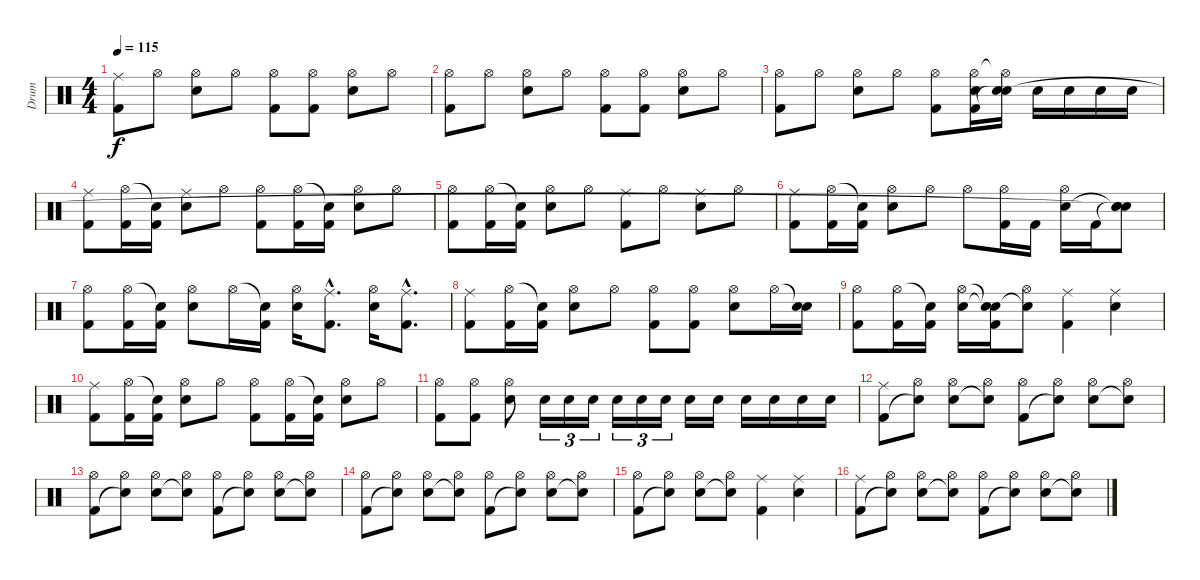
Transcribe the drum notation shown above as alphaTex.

\track ("Drum" "Drum") {instrument percussion}
\staff {score}
\articulation defaults
\ts (4 4)
\tempo 115
\clef neutral
\ks c
("Ride (middle)" "Kick (hit) 2").8{dy f} "Hi-Hat (open)".8 ("Hi-Hat (open)" "Electric Snare (hit)").8 "Hi-Hat (open)".8 ("Hi-Hat (open)" "Kick (hit) 2").8 ("Hi-Hat (open)" "Kick (hit) 2").8 ("Hi-Hat (open)" "Electric Snare (hit)").8 "Hi-Hat (open)".8 |
("Hi-Hat (open)" "Kick (hit) 2").8 "Hi-Hat (open)".8 ("Hi-Hat (open)" "Electric Snare (hit)").8 "Hi-Hat (open)".8 ("Hi-Hat (open)" "Kick (hit) 2").8 ("Hi-Hat (open)" "Kick (hit) 2").8 ("Hi-Hat (open)" "Electric Snare (hit)").8 "Hi-Hat (open)".8 |
("Hi-Hat (open)" "Kick (hit) 2").8 "Hi-Hat (open)".8 ("Hi-Hat (open)" "Electric Snare (hit)").8 "Hi-Hat (open)".8 ("Hi-Hat (open)" "Kick (hit) 2").8 ("Hi-Hat (open)" "Electric Snare (hit)" "Kick (hit) 2"{t}).16 ("Hi-Hat (open)"{t} "Electric Snare (hit)" "Snare (hit)"{t}).16 "Electric Snare (hit)".16 "Electric Snare (hit)".16 "Electric Snare (hit)".16 "Electric Snare (hit)".16 |
("Ride (middle)" "Kick (hit) 2").8 ("Hi-Hat (open)" "Kick (hit) 2").16 ("Snare (hit)"{t} "Kick (hit) 2").16 ("Ride (middle)" "Electric Snare (hit)").8 "Hi-Hat (open)".8 ("Hi-Hat (open)" "Kick (hit) 2").8 ("Hi-Hat (open)" "Kick (hit) 2").16 ("Snare (hit)"{t} "Kick (hit) 2").16 ("Hi-Hat (open)" "Electric Snare (hit)").8 "Hi-Hat (open)".8 |
("Hi-Hat (open)" "Kick (hit) 2").8 ("Hi-Hat (open)" "Kick (hit) 2").16 ("Snare (hit)"{t} "Kick (hit) 2").16 ("Hi-Hat (open)" "Electric Snare (hit)").8 "Hi-Hat (open)".8 ("Ride (middle)" "Kick (hit) 2").8 "Hi-Hat (open)".8 ("Ride (middle)" "Electric Snare (hit)").8 "Hi-Hat (open)".8 |
("Ride (middle)" "Kick (hit) 2").8 ("Hi-Hat (open)" "Kick (hit) 2").16 ("Snare (hit)"{t} "Kick (hit) 2").16 ("Hi-Hat (open)" "Electric Snare (hit)").8 "Hi-Hat (open)".8 "Hi-Hat (open)".8 ("Hi-Hat (open)" "Kick (hit) 2").16 "Kick (hit) 2".16 ("Hi-Hat (open)" "Electric Snare (hit)").16 "Kick (hit) 2".16 ("Snare (hit)"{t} "Snare (hit)"{t} "Snare (hit)"{t}).8 |
("Hi-Hat (open)" "Kick (hit) 2").8 ("Hi-Hat (open)" "Kick (hit) 2").16 ("Snare (hit)"{t} "Kick (hit) 2").16 ("Hi-Hat (open)" "Electric Snare (hit)").8 "Hi-Hat (open)".16 ("Snare (hit)"{t} "Kick (hit) 2").16 ("Hi-Hat (open)" "Electric Snare (hit)").16 ("Ride (middle)"{hac} "Kick (hit) 2"{hac}).8{d} ("Hi-Hat (open)" "Electric Snare (hit)").16 ("Ride (middle)"{hac} "Kick (hit) 2"{hac}).8{d} |
("Ride (middle)" "Kick (hit) 2").8 ("Hi-Hat (open)" "Kick (hit) 2").16 ("Snare (hit)"{t} "Kick (hit) 2").16 ("Hi-Hat (open)" "Electric Snare (hit)").8 "Hi-Hat (open)".8 ("Hi-Hat (open)" "Kick (hit) 2").8 ("Hi-Hat (open)" "Kick (hit) 2").8 ("Hi-Hat (open)" "Electric Snare (hit)").8 "Hi-Hat (open)".16 ("Snare (hit)"{t} "Electric Snare (hit)").16 |
("Hi-Hat (open)" "Kick (hit) 2").8 ("Hi-Hat (open)" "Kick (hit) 2").16 ("Snare (hit)"{t} "Kick (hit) 2").16 ("Hi-Hat (open)" "Electric Snare (hit)").16 ("Snare (hit)"{t} "Snare (hit)"{t} "Kick (hit) 2").16 ("Hi-Hat (open)" "Snare (hit)"{t}).8 ("Ride (middle)" "Kick (hit) 2").4 ("Ride (middle)" "Electric Snare (hit)").4 |
("Ride (middle)" "Kick (hit) 2").8 ("Hi-Hat (open)" "Kick (hit) 2").16 ("Snare (hit)"{t} "Kick (hit) 2").16 ("Hi-Hat (open)" "Electric Snare (hit)").8 "Hi-Hat (open)".8 ("Hi-Hat (open)" "Kick (hit) 2").8 ("Hi-Hat (open)" "Kick (hit) 2").16 ("Snare (hit)"{t} "Kick (hit) 2").16 ("Hi-Hat (open)" "Electric Snare (hit)").8 "Hi-Hat (open)".8 |
("Hi-Hat (open)" "Kick (hit) 2").8 ("Hi-Hat (open)" "Kick (hit) 2").8 ("Hi-Hat (open)" "Electric Snare (hit)").8 "Electric Snare (hit)".16{tu (3 2)} "Electric Snare (hit)".16{tu (3 2)} "Electric Snare (hit)".16{tu (3 2)} "Electric Snare (hit)".16{tu (3 2)} "Electric Snare (hit)".16{tu (3 2)} "Electric Snare (hit)".16{tu (3 2)} "Electric Snare (hit)".16 "Electric Snare (hit)".16 "Electric Snare (hit)".16 "Electric Snare (hit)".16 "Electric Snare (hit)".16 "Electric Snare (hit)".16 |
("Ride (middle)" "Kick (hit) 2").8 ("Hi-Hat (open)" "Snare (hit)"{t}).8 ("Hi-Hat (open)" "Electric Snare (hit)").8 ("Hi-Hat (open)" "Snare (hit)"{t}).8 ("Hi-Hat (open)" "Kick (hit) 2").8 ("Hi-Hat (open)" "Snare (hit)"{t}).8 ("Hi-Hat (open)" "Electric Snare (hit)").8 ("Hi-Hat (open)" "Snare (hit)"{t}).8 |
("Hi-Hat (open)" "Kick (hit) 2").8 ("Hi-Hat (open)" "Snare (hit)"{t}).8 ("Hi-Hat (open)" "Electric Snare (hit)").8 ("Hi-Hat (open)" "Snare (hit)"{t}).8 ("Hi-Hat (open)" "Kick (hit) 2").8 ("Hi-Hat (open)" "Snare (hit)"{t}).8 ("Hi-Hat (open)" "Electric Snare (hit)").8 ("Hi-Hat (open)" "Snare (hit)"{t}).8 |
("Hi-Hat (open)" "Kick (hit) 2").8 ("Hi-Hat (open)" "Snare (hit)"{t}).8 ("Hi-Hat (open)" "Electric Snare (hit)").8 ("Hi-Hat (open)" "Snare (hit)"{t}).8 ("Hi-Hat (open)" "Kick (hit) 2").8 ("Hi-Hat (open)" "Snare (hit)"{t}).8 ("Hi-Hat (open)" "Electric Snare (hit)").8 ("Hi-Hat (open)" "Snare (hit)"{t}).8 |
("Hi-Hat (open)" "Kick (hit) 2").8 ("Hi-Hat (open)" "Snare (hit)"{t}).8 ("Hi-Hat (open)" "Electric Snare (hit)").8 ("Hi-Hat (open)" "Snare (hit)"{t}).8 ("Ride (middle)" "Kick (hit) 2").4 ("Ride (middle)" "Electric Snare (hit)").4 |
("Ride (middle)" "Kick (hit) 2").8 ("Hi-Hat (open)" "Snare (hit)"{t}).8 ("Hi-Hat (open)" "Electric Snare (hit)").8 ("Hi-Hat (open)" "Snare (hit)"{t}).8 ("Hi-Hat (open)" "Kick (hit) 2").8 ("Hi-Hat (open)" "Snare (hit)"{t}).8 ("Hi-Hat (open)" "Electric Snare (hit)").8 ("Hi-Hat (open)" "Snare (hit)"{t}).8
